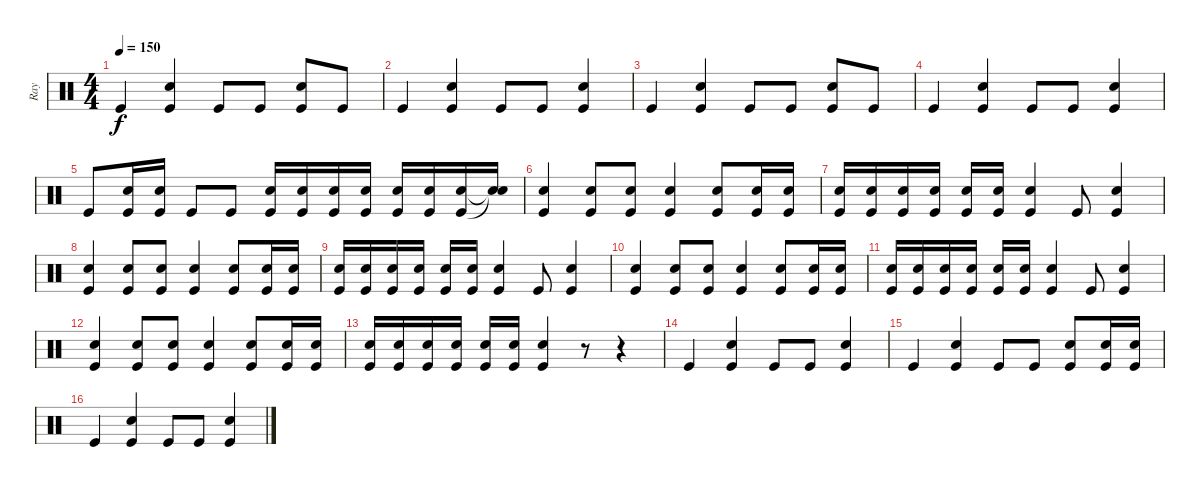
\track ("Ray" "Ray") {instrument percussion}
\staff {score}
\articulation defaults
\ts (4 4)
\tempo 150
\clef neutral
\ks c "Kick (hit)".4{dy f}
("Kick (hit)" "Electric Snare (hit)").4 "Kick (hit)".8 "Kick (hit)".8 ("Kick (hit)" "Electric Snare (hit)").8 "Kick (hit)".8 |
"Kick (hit)".4 ("Kick (hit)" "Electric Snare (hit)").4 "Kick (hit)".8 "Kick (hit)".8 ("Kick (hit)" "Electric Snare (hit)").4 |
"Kick (hit)".4 ("Kick (hit)" "Electric Snare (hit)").4 "Kick (hit)".8 "Kick (hit)".8 ("Kick (hit)" "Electric Snare (hit)").8 "Kick (hit)".8 |
"Kick (hit)".4 ("Kick (hit)" "Electric Snare (hit)").4 "Kick (hit)".8 "Kick (hit)".8 ("Kick (hit)" "Electric Snare (hit)").4 |
"Kick (hit)".8 ("Kick (hit)" "Electric Snare (hit)").16 ("Kick (hit)" "Electric Snare (hit)").16 "Kick (hit)".8 "Kick (hit)".8 ("Kick (hit)" "Electric Snare (hit)").16 ("Kick (hit)" "Electric Snare (hit)").16 ("Kick (hit)" "Electric Snare (hit)").16 ("Kick (hit)" "Electric Snare (hit)").16 ("Kick (hit)" "Electric Snare (hit)").16 ("Kick (hit)" "Electric Snare (hit)").16 ("Kick (hit)" "Electric Snare (hit)").16 ("Snare (hit)"{t} "Snare (hit)"{t}).16 |
("Kick (hit)" "Electric Snare (hit)").4 ("Kick (hit)" "Electric Snare (hit)").8 ("Kick (hit)" "Electric Snare (hit)").8 ("Kick (hit)" "Electric Snare (hit)").4 ("Kick (hit)" "Electric Snare (hit)").8 ("Kick (hit)" "Electric Snare (hit)").16 ("Kick (hit)" "Electric Snare (hit)").16 |
("Kick (hit)" "Electric Snare (hit)").16 ("Kick (hit)" "Electric Snare (hit)").16 ("Kick (hit)" "Electric Snare (hit)").16 ("Kick (hit)" "Electric Snare (hit)").16 ("Kick (hit)" "Electric Snare (hit)").16 ("Kick (hit)" "Electric Snare (hit)").16 ("Kick (hit)" "Electric Snare (hit)").4 "Kick (hit)".8 ("Kick (hit)" "Electric Snare (hit)").4 |
("Kick (hit)" "Electric Snare (hit)").4 ("Kick (hit)" "Electric Snare (hit)").8 ("Kick (hit)" "Electric Snare (hit)").8 ("Kick (hit)" "Electric Snare (hit)").4 ("Kick (hit)" "Electric Snare (hit)").8 ("Kick (hit)" "Electric Snare (hit)").16 ("Kick (hit)" "Electric Snare (hit)").16 |
("Kick (hit)" "Electric Snare (hit)").16 ("Kick (hit)" "Electric Snare (hit)").16 ("Kick (hit)" "Electric Snare (hit)").16 ("Kick (hit)" "Electric Snare (hit)").16 ("Kick (hit)" "Electric Snare (hit)").16 ("Kick (hit)" "Electric Snare (hit)").16 ("Kick (hit)" "Electric Snare (hit)").4 "Kick (hit)".8 ("Kick (hit)" "Electric Snare (hit)").4 |
("Kick (hit)" "Electric Snare (hit)").4 ("Kick (hit)" "Electric Snare (hit)").8 ("Kick (hit)" "Electric Snare (hit)").8 ("Kick (hit)" "Electric Snare (hit)").4 ("Kick (hit)" "Electric Snare (hit)").8 ("Kick (hit)" "Electric Snare (hit)").16 ("Kick (hit)" "Electric Snare (hit)").16 |
("Kick (hit)" "Electric Snare (hit)").16 ("Kick (hit)" "Electric Snare (hit)").16 ("Kick (hit)" "Electric Snare (hit)").16 ("Kick (hit)" "Electric Snare (hit)").16 ("Kick (hit)" "Electric Snare (hit)").16 ("Kick (hit)" "Electric Snare (hit)").16 ("Kick (hit)" "Electric Snare (hit)").4 "Kick (hit)".8 ("Kick (hit)" "Electric Snare (hit)").4 |
("Kick (hit)" "Electric Snare (hit)").4 ("Kick (hit)" "Electric Snare (hit)").8 ("Kick (hit)" "Electric Snare (hit)").8 ("Kick (hit)" "Electric Snare (hit)").4 ("Kick (hit)" "Electric Snare (hit)").8 ("Kick (hit)" "Electric Snare (hit)").16 ("Kick (hit)" "Electric Snare (hit)").16 |
("Kick (hit)" "Electric Snare (hit)").16 ("Kick (hit)" "Electric Snare (hit)").16 ("Kick (hit)" "Electric Snare (hit)").16 ("Kick (hit)" "Electric Snare (hit)").16 ("Kick (hit)" "Electric Snare (hit)").16 ("Kick (hit)" "Electric Snare (hit)").16 ("Kick (hit)" "Electric Snare (hit)").4 r.8 r.4 |
"Kick (hit)".4 ("Kick (hit)" "Electric Snare (hit)").4 "Kick (hit)".8 "Kick (hit)".8 ("Kick (hit)" "Electric Snare (hit)").4 |
"Kick (hit)".4 ("Kick (hit)" "Electric Snare (hit)").4 "Kick (hit)".8 "Kick (hit)".8 ("Kick (hit)" "Electric Snare (hit)").8 ("Kick (hit)" "Electric Snare (hit)").16 ("Kick (hit)" "Electric Snare (hit)").16 |
"Kick (hit)".4 ("Kick (hit)" "Electric Snare (hit)").4 "Kick (hit)".8 "Kick (hit)".8 ("Kick (hit)" "Electric Snare (hit)").4
